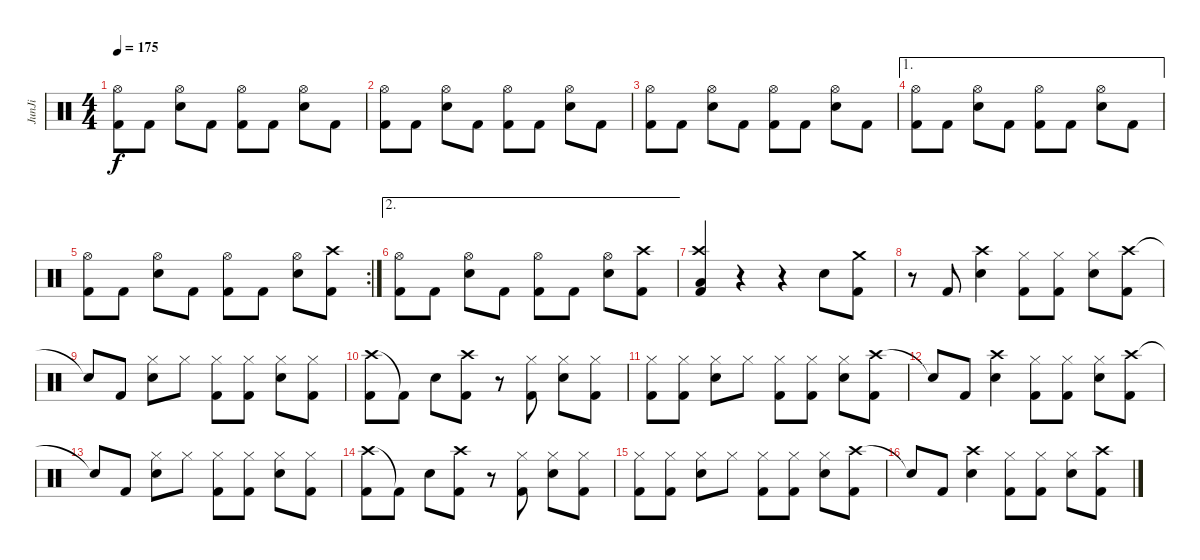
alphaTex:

\track ("JunJi" "JunJi") {instrument percussion}
\staff {score}
\articulation defaults
\ts (4 4)
\tempo 175
\clef neutral
\ks c
("Hi-Hat (open)" "Kick (hit) 2").8{dy f} "Kick (hit) 2".8 ("Hi-Hat (open)" "Snare (hit) 2").8 "Kick (hit) 2".8 ("Hi-Hat (open)" "Kick (hit) 2").8 "Kick (hit) 2".8 ("Hi-Hat (open)" "Snare (hit) 2").8 "Kick (hit) 2".8 |
("Hi-Hat (open)" "Kick (hit) 2").8 "Kick (hit) 2".8 ("Hi-Hat (open)" "Snare (hit) 2").8 "Kick (hit) 2".8 ("Hi-Hat (open)" "Kick (hit) 2").8 "Kick (hit) 2".8 ("Hi-Hat (open)" "Snare (hit) 2").8 "Kick (hit) 2".8 |
("Hi-Hat (open)" "Kick (hit) 2").8 "Kick (hit) 2".8 ("Hi-Hat (open)" "Snare (hit) 2").8 "Kick (hit) 2".8 ("Hi-Hat (open)" "Kick (hit) 2").8 "Kick (hit) 2".8 ("Hi-Hat (open)" "Snare (hit) 2").8 "Kick (hit) 2".8 |
\ae 1
("Hi-Hat (open)" "Kick (hit) 2").8 "Kick (hit) 2".8 ("Hi-Hat (open)" "Snare (hit) 2").8 "Kick (hit) 2".8 ("Hi-Hat (open)" "Kick (hit) 2").8 "Kick (hit) 2".8 ("Hi-Hat (open)" "Snare (hit) 2").8 "Kick (hit) 2".8 |
\rc 2
("Hi-Hat (open)" "Kick (hit) 2").8 "Kick (hit) 2".8 ("Hi-Hat (open)" "Snare (hit) 2").8 "Kick (hit) 2".8 ("Hi-Hat (open)" "Kick (hit) 2").8 "Kick (hit) 2".8 ("Hi-Hat (open)" "Snare (hit) 2").8 ("Crash high (hit)" "Kick (hit) 2").8 |
\ae 2
("Hi-Hat (open)" "Kick (hit) 2").8 "Kick (hit) 2".8 ("Hi-Hat (open)" "Snare (hit) 2").8 "Kick (hit) 2".8 ("Hi-Hat (open)" "Kick (hit) 2").8 "Kick (hit) 2".8 ("Hi-Hat (open)" "Snare (hit) 2").8 ("Crash high (hit)" "Kick (hit) 2").8 |
("Crash high (hit)" "Low Tom (hit)" "Kick (hit) 2").4 r.4 r.4 "Snare (hit) 2".8 ("Crash medium (hit)" "Kick (hit) 2").8 |
r.8 "Kick (hit) 2".8 ("Crash high (hit)" "Snare (hit) 2").4 ("Hi-Hat (closed)" "Kick (hit) 2").8 ("Hi-Hat (closed)" "Kick (hit) 2").8 ("Hi-Hat (closed)" "Snare (hit) 2").8 ("Crash high (hit)" "Kick (hit) 2").8 |
"Snare (hit)"{t}.8 "Kick (hit) 2".8 ("Hi-Hat (closed)" "Snare (hit) 2").8 "Hi-Hat (closed)".8 ("Hi-Hat (closed)" "Kick (hit) 2").8 ("Hi-Hat (closed)" "Kick (hit) 2").8 ("Hi-Hat (closed)" "Snare (hit) 2").8 ("Hi-Hat (closed)" "Kick (hit) 2").8 |
("Crash high (hit)" "Kick (hit) 2").8 "Kick (hit) 2"{t}.8 "Snare (hit) 2".8 ("Crash high (hit)" "Kick (hit) 2").8 r.8 ("Hi-Hat (closed)" "Kick (hit) 2").8 ("Hi-Hat (closed)" "Snare (hit) 2").8 ("Hi-Hat (closed)" "Kick (hit) 2").8 |
("Hi-Hat (closed)" "Kick (hit) 2").8 ("Hi-Hat (closed)" "Kick (hit) 2").8 ("Hi-Hat (closed)" "Snare (hit) 2").8 "Hi-Hat (closed)".8 ("Hi-Hat (closed)" "Kick (hit) 2").8 ("Hi-Hat (closed)" "Kick (hit) 2").8 ("Hi-Hat (closed)" "Snare (hit) 2").8 ("Crash high (hit)" "Kick (hit) 2").8 |
"Snare (hit)"{t}.8 "Kick (hit) 2".8 ("Crash high (hit)" "Snare (hit) 2").4 ("Hi-Hat (closed)" "Kick (hit) 2").8 ("Hi-Hat (closed)" "Kick (hit) 2").8 ("Hi-Hat (closed)" "Snare (hit) 2").8 ("Crash high (hit)" "Kick (hit) 2").8 |
"Snare (hit)"{t}.8 "Kick (hit) 2".8 ("Hi-Hat (closed)" "Snare (hit) 2").8 "Hi-Hat (closed)".8 ("Hi-Hat (closed)" "Kick (hit) 2").8 ("Hi-Hat (closed)" "Kick (hit) 2").8 ("Hi-Hat (closed)" "Snare (hit) 2").8 ("Hi-Hat (closed)" "Kick (hit) 2").8 |
("Crash high (hit)" "Kick (hit) 2").8 "Kick (hit) 2"{t}.8 "Snare (hit) 2".8 ("Crash high (hit)" "Kick (hit) 2").8 r.8 ("Hi-Hat (closed)" "Kick (hit) 2").8 ("Hi-Hat (closed)" "Snare (hit) 2").8 ("Hi-Hat (closed)" "Kick (hit) 2").8 |
("Hi-Hat (closed)" "Kick (hit) 2").8 ("Hi-Hat (closed)" "Kick (hit) 2").8 ("Hi-Hat (closed)" "Snare (hit) 2").8 "Hi-Hat (closed)".8 ("Hi-Hat (closed)" "Kick (hit) 2").8 ("Hi-Hat (closed)" "Kick (hit) 2").8 ("Hi-Hat (closed)" "Snare (hit) 2").8 ("Crash high (hit)" "Kick (hit) 2").8 |
"Snare (hit)"{t}.8 "Kick (hit) 2".8 ("Crash high (hit)" "Snare (hit) 2").4 ("Hi-Hat (closed)" "Kick (hit) 2").8 ("Hi-Hat (closed)" "Kick (hit) 2").8 ("Hi-Hat (closed)" "Snare (hit) 2").8 ("Crash high (hit)" "Kick (hit) 2").8
